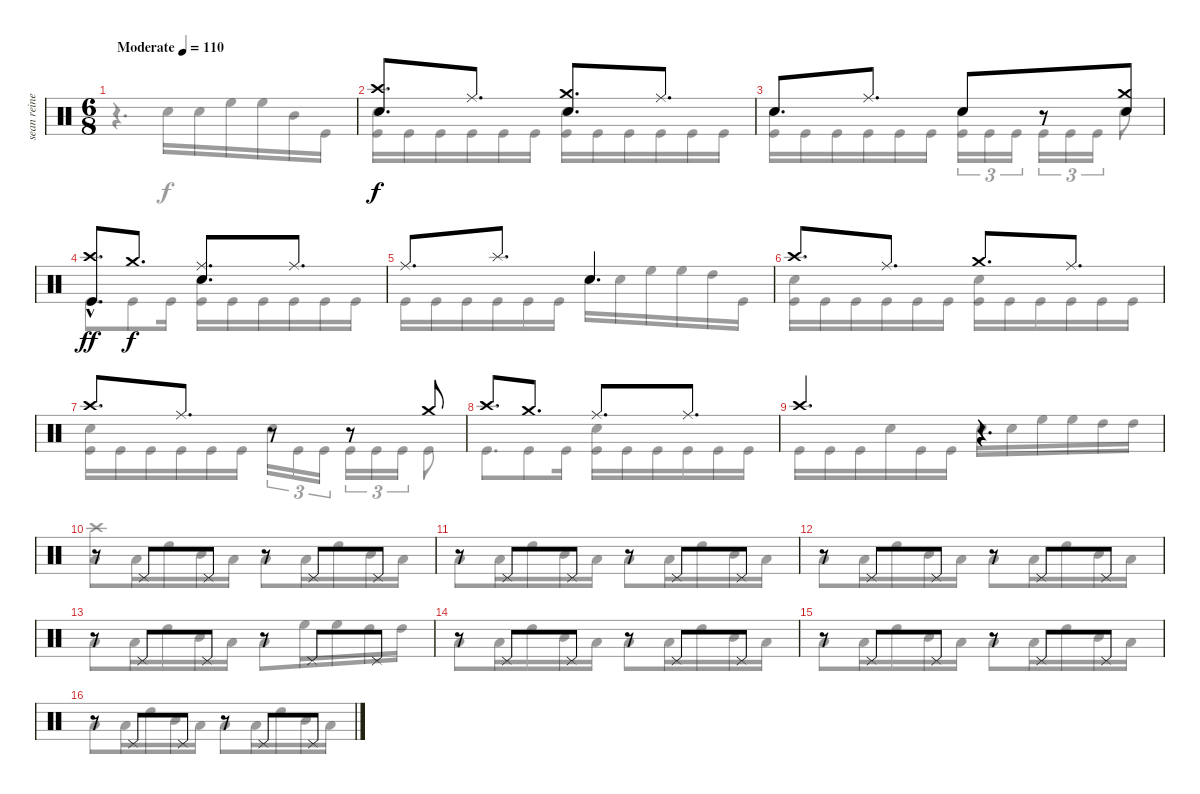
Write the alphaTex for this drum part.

\track ("sean reinert" "sean reine") {instrument percussion}
\staff {score}
\articulation defaults
\voice
\ts (6 8)
\tempo (110 "Moderate")
\clef neutral
\ks c
|
("Crash high (hit)" "Snare (hit) 2").8{d} "Ride (middle)".8{d} ("Crash medium (hit)" "Snare (hit) 2").8{d} "Ride (middle)".8{d} |
"Snare (hit) 2".8{d} "Ride (middle)".8{d} "Snare (hit) 2".8 r.8 ("Crash medium (hit)" "Snare (hit) 2").8 |
("Crash high (hit)"{hac} "Kick (hit)"{hac}).8{d dy ff} "Crash medium (hit)".8{d dy f} ("Ride (middle)" "Snare (hit) 2").8{d} "Ride (middle)".8{d} |
"Ride (middle)".8{d} "Splash (hit)".8{d} "Snare (hit) 2".4{d} |
"Crash high (hit)".8{d} "Ride (middle)".8{d} "Crash medium (hit)".8{d} "Ride (middle)".8{d} |
"Crash high (hit)".8{d} "Ride (middle)".8{d} r.8 r.8 "Crash medium (hit)".8 |
"Crash high (hit)".8{d} "Crash medium (hit)".8{d} "Ride (middle)".8{d} "Ride (middle)".8{d} |
"Crash high (hit)".4{d} r.4{d} |
r.8 "Pedal Hi-Hat (hit)".8 "Pedal Hi-Hat (hit)".8 r.8 "Pedal Hi-Hat (hit)".8 "Pedal Hi-Hat (hit)".8 |
r.8 "Pedal Hi-Hat (hit)".8 "Pedal Hi-Hat (hit)".8 r.8 "Pedal Hi-Hat (hit)".8 "Pedal Hi-Hat (hit)".8 |
r.8 "Pedal Hi-Hat (hit)".8 "Pedal Hi-Hat (hit)".8 r.8 "Pedal Hi-Hat (hit)".8 "Pedal Hi-Hat (hit)".8 |
r.8 "Pedal Hi-Hat (hit)".8 "Pedal Hi-Hat (hit)".8 r.8 "Pedal Hi-Hat (hit)".8 "Pedal Hi-Hat (hit)".8 |
r.8 "Pedal Hi-Hat (hit)".8 "Pedal Hi-Hat (hit)".8 r.8 "Pedal Hi-Hat (hit)".8 "Pedal Hi-Hat (hit)".8 |
r.8 "Pedal Hi-Hat (hit)".8 "Pedal Hi-Hat (hit)".8 r.8 "Pedal Hi-Hat (hit)".8 "Pedal Hi-Hat (hit)".8 |
r.8 "Pedal Hi-Hat (hit)".8 "Pedal Hi-Hat (hit)".8 r.8 "Pedal Hi-Hat (hit)".8 "Pedal Hi-Hat (hit)".8
\voice
\clef neutral
\ottava regular
\simile none
\ks c
r.4{d dy f} "Snare (hit) 2".16 "Snare (hit) 2".16 "High Floor Tom (hit)".16 "High Floor Tom (hit)".16 "Mid Tom (hit)".16 "Kick (hit)".16 |
("Snare (hit) 2" "Kick (hit)").16 "Kick (hit)".16 "Kick (hit)".16 "Kick (hit)".16 "Kick (hit)".16 "Kick (hit)".16 ("Snare (hit) 2" "Kick (hit)").16 "Kick (hit)".16 "Kick (hit)".16 "Kick (hit)".16 "Kick (hit)".16 "Kick (hit)".16 |
("Snare (hit) 2" "Kick (hit)").16 "Kick (hit)".16 "Kick (hit)".16 "Kick (hit)".16 "Kick (hit)".16 "Kick (hit)".16 ("Snare (hit) 2" "Kick (hit)").16{tu (3 2)} "Kick (hit)".16{tu (3 2)} "Kick (hit)".16{tu (3 2) beam splitsecondary} "Kick (hit)".16{tu (3 2)} "Kick (hit)".16{tu (3 2)} "Kick (hit)".16{tu (3 2)} "Snare (hit) 2".8 |
"Kick (hit)".8{d} "Kick (hit)".8 "Kick (hit)".16 ("Snare (hit) 2" "Kick (hit)").16 "Kick (hit)".16 "Kick (hit)".16 "Kick (hit)".16 "Kick (hit)".16 "Kick (hit)".16 |
"Kick (hit)".16 "Kick (hit)".16 "Kick (hit)".16 "Kick (hit)".16 "Kick (hit)".16 "Kick (hit)".16 "Snare (hit) 2".16 "Snare (hit) 2".16 "High Floor Tom (hit)".16 "High Floor Tom (hit)".16 "High Tom (hit)".16 "Kick (hit)".16 |
("Snare (hit) 2" "Kick (hit)").16 "Kick (hit)".16 "Kick (hit)".16 "Kick (hit)".16 "Kick (hit)".16 "Kick (hit)".16 ("Snare (hit) 2" "Kick (hit)").16 "Kick (hit)".16 "Kick (hit)".16 "Kick (hit)".16 "Kick (hit)".16 "Kick (hit)".16 |
("Snare (hit) 2" "Kick (hit)").16 "Kick (hit)".16 "Kick (hit)".16 "Kick (hit)".16 "Kick (hit)".16 "Kick (hit)".16 "Snare (hit) 2".16{tu (3 2)} "Kick (hit)".16{tu (3 2)} "Kick (hit)".16{tu (3 2) beam splitsecondary} "Kick (hit)".16{tu (3 2)} "Kick (hit)".16{tu (3 2)} "Kick (hit)".16{tu (3 2)} "Kick (hit)".8 |
"Kick (hit)".8{d} "Kick (hit)".8 "Kick (hit)".16 ("Snare (hit) 2" "Kick (hit)").16 "Kick (hit)".16 "Kick (hit)".16 "Kick (hit)".16 "Kick (hit)".16 "Kick (hit)".16 |
"Kick (hit)".16 "Kick (hit)".16 "Kick (hit)".16 "Snare (hit) 2".16 "Kick (hit)".16 "Kick (hit)".16 "Snare (hit) 2".16 "Snare (hit) 2".16 "High Floor Tom (hit)".16 "High Floor Tom (hit)".16 "High Tom (hit)".16 "High Tom (hit)".16 |
("Crash high (hit)" "Low Tom (hit)").8 "Low Tom (hit)".16 "High Tom (hit)".16 "Mid Tom (hit)".16 "Low Tom (hit)".16 "Low Tom (hit)".8 "Low Tom (hit)".16 "High Tom (hit)".16 "Mid Tom (hit)".16 "Low Tom (hit)".16 |
"Low Tom (hit)".8 "Low Tom (hit)".16 "High Tom (hit)".16 "Mid Tom (hit)".16 "Low Tom (hit)".16 "Low Tom (hit)".8 "Low Tom (hit)".16 "High Tom (hit)".16 "Mid Tom (hit)".16 "Low Tom (hit)".16 |
"Low Tom (hit)".8 "Low Tom (hit)".16 "High Tom (hit)".16 "Mid Tom (hit)".16 "Low Tom (hit)".16 "Low Tom (hit)".8 "Low Tom (hit)".16 "High Tom (hit)".16 "Mid Tom (hit)".16 "Low Tom (hit)".16 |
"Low Tom (hit)".8 "Low Tom (hit)".16 "High Tom (hit)".16 "Mid Tom (hit)".16 "Low Tom (hit)".16 "Low Tom (hit)".8 "High Floor Tom (hit)".16 "High Floor Tom (hit)".16 "High Tom (hit)".16 "High Tom (hit)".16 |
"Low Tom (hit)".8 "Low Tom (hit)".16 "High Tom (hit)".16 "Mid Tom (hit)".16 "Low Tom (hit)".16 "Low Tom (hit)".8 "Low Tom (hit)".16 "High Tom (hit)".16 "Mid Tom (hit)".16 "Low Tom (hit)".16 |
"Low Tom (hit)".8 "Low Tom (hit)".16 "High Tom (hit)".16 "Mid Tom (hit)".16 "Low Tom (hit)".16 "Low Tom (hit)".8 "Low Tom (hit)".16 "High Tom (hit)".16 "Mid Tom (hit)".16 "Low Tom (hit)".16 |
"Low Tom (hit)".8 "Low Tom (hit)".16 "High Tom (hit)".16 "Mid Tom (hit)".16 "Low Tom (hit)".16 "Low Tom (hit)".8 "Low Tom (hit)".16 "High Tom (hit)".16 "Mid Tom (hit)".16 "Low Tom (hit)".16
